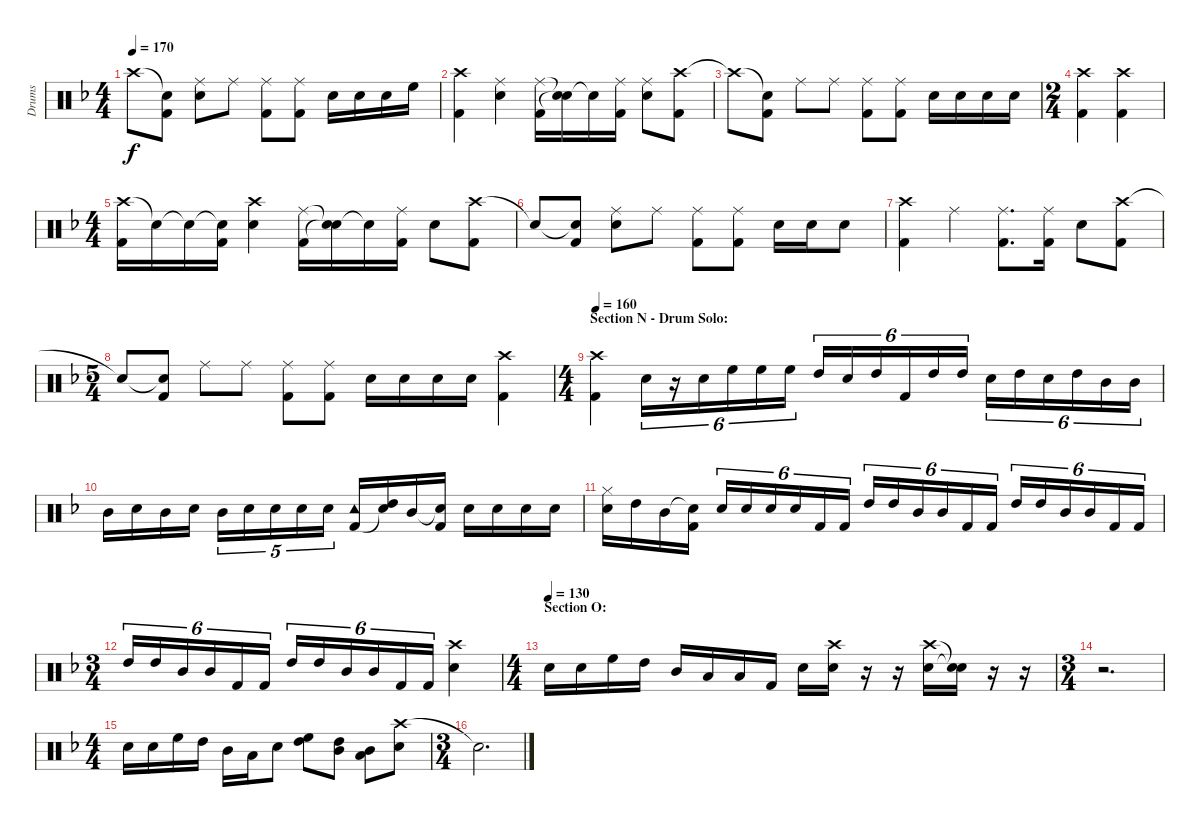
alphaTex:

\track ("Drums" "Drums") {instrument percussion}
\staff {score}
\articulation defaults
\ts (4 4)
\tempo 170
\clef neutral
\ks f "Crash high (hit)"{t}.8{dy f}
("Snare (hit)"{t} "Kick (hit) 2").8 ("Ride (middle)" "Snare (hit) 2").8 "Ride (middle)".8 ("Ride (middle)" "Kick (hit) 2").8 ("Ride (middle)" "Kick (hit) 2").8 "Snare (hit) 2".16 "Snare (hit) 2".16 "Snare (hit) 2".16 "High Floor Tom (hit)".16 |
("Crash high (hit)" "Kick (hit) 2").4 ("Ride (middle)" "Snare (hit) 2").4 ("Ride (middle)" "Kick (hit) 2").16 ("Snare (hit)"{t} "Snare (hit)"{t}).16 "Snare (hit)"{t}.16 ("Ride (middle)" "Kick (hit) 2").16 ("Ride (middle)" "Snare (hit) 2").8 ("Crash high (hit)" "Kick (hit) 2").8 |
"Crash high (hit)"{t}.8 ("Snare (hit)"{t} "Kick (hit) 2").8 "Ride (middle)".8 "Ride (middle)".8 ("Ride (middle)" "Kick (hit) 2").8 ("Ride (middle)" "Kick (hit) 2").8 "Snare (hit) 2".16 "Snare (hit) 2".16 "Snare (hit) 2".16 "Snare (hit) 2".16 |
\ts (2 4)
("Crash high (hit)" "Kick (hit) 2").4 ("Crash high (hit)" "Kick (hit) 2").4 |
\ts (4 4)
("Crash high (hit)" "Kick (hit) 2").16 "Snare (hit)"{t}.16 "Snare (hit)"{t}.16 ("Snare (hit)"{t} "Kick (hit) 2").16 ("Crash high (hit)" "Snare (hit) 2").4 ("Ride (middle)" "Kick (hit) 2").16 ("Snare (hit)"{t} "Snare (hit)"{t}).16 "Snare (hit)"{t}.16 ("Ride (middle)" "Kick (hit) 2").16 "Snare (hit) 2".8 ("Crash high (hit)" "Kick (hit) 2").8 |
"Snare (hit)"{t}.8 ("Snare (hit)"{t} "Kick (hit) 2").8 ("Ride (middle)" "Snare (hit) 2").8 "Ride (middle)".8 ("Ride (middle)" "Kick (hit) 2").8 ("Ride (middle)" "Kick (hit) 2").8 "Snare (hit) 2".16 "Snare (hit) 2".16 "Snare (hit) 2".8 |
("Crash high (hit)" "Kick (hit) 2").4 "Ride (middle)".4 ("Ride (middle)" "Kick (hit) 2").8{d} ("Ride (middle)" "Kick (hit) 2").16 "Snare (hit) 2".8 ("Crash high (hit)" "Kick (hit) 2").8 |
\ts (5 4)
"Snare (hit)"{t}.8 ("Snare (hit)"{t} "Kick (hit) 2").8 "Ride (middle)".8 "Ride (middle)".8 ("Ride (middle)" "Kick (hit) 2").8 ("Ride (middle)" "Kick (hit) 2").8 "Snare (hit) 2".16 "Snare (hit) 2".16 "Snare (hit) 2".16 "Snare (hit) 2".16 ("Crash high (hit)" "Kick (hit) 2").4 |
\ts (4 4)
\section ("" "Section N - Drum Solo:")
\tempo 160
("Crash high (hit)" "Kick (hit) 2").4 "Snare (hit) 2".16{tu (6 4)} r.16{tu (6 4)} "Snare (hit) 2".16{tu (6 4)} "High Floor Tom (hit)".16{tu (6 4)} "High Floor Tom (hit)".16{tu (6 4)} "High Floor Tom (hit)".16{tu (6 4)} "High Tom (hit)".16{tu (6 4)} "Snare (hit) 2".16{tu (6 4)} "High Tom (hit)".16{tu (6 4)} "Kick (hit) 2".16{tu (6 4)} "High Tom (hit)".16{tu (6 4)} "High Tom (hit)".16{tu (6 4)} "Snare (hit) 2".16{tu (6 4)} "High Tom (hit)".16{tu (6 4)} "Snare (hit) 2".16{tu (6 4)} "High Tom (hit)".16{tu (6 4)} "Mid Tom (hit)".16{tu (6 4)} "Mid Tom (hit)".16{tu (6 4)} |
"Mid Tom (hit)".16 "Snare (hit) 2".16 "Mid Tom (hit)".16 "Snare (hit) 2".16 "Mid Tom (hit)".16{tu (5 4)} "Snare (hit) 2".16{tu (5 4)} "Snare (hit) 2".16{tu (5 4)} "Snare (hit) 2".16{tu (5 4)} "Snare (hit) 2".16{tu (5 4)} ("Tambourine (hit)" "Kick (hit) 2").16 ("High Tom (hit)" "Snare (hit)"{t}).16 "Mid Tom (hit)".16 ("Snare (hit)"{t} "Kick (hit) 2").16 "Snare (hit) 2".16 "Snare (hit) 2".16 "Snare (hit) 2".16 "Snare (hit) 2".16 |
("Hi-Hat (closed)" "Snare (hit) 2").16 "High Tom (hit)".16 "Mid Tom (hit)".16 ("Snare (hit)"{t} "Kick (hit) 2").16 "Snare (hit) 2".16{tu (6 4)} "Snare (hit) 2".16{tu (6 4)} "Snare (hit) 2".16{tu (6 4)} "Snare (hit) 2".16{tu (6 4)} "Kick (hit) 2".16{tu (6 4)} "Kick (hit) 2".16{tu (6 4)} "High Tom (hit)".16{tu (6 4)} "High Tom (hit)".16{tu (6 4)} "Mid Tom (hit)".16{tu (6 4)} "Mid Tom (hit)".16{tu (6 4)} "Kick (hit) 2".16{tu (6 4)} "Kick (hit) 2".16{tu (6 4)} "High Tom (hit)".16{tu (6 4)} "High Tom (hit)".16{tu (6 4)} "Mid Tom (hit)".16{tu (6 4)} "Mid Tom (hit)".16{tu (6 4)} "Kick (hit) 2".16{tu (6 4)} "Kick (hit) 2".16{tu (6 4)} |
\ts (3 4)
"High Tom (hit)".16{tu (6 4)} "High Tom (hit)".16{tu (6 4)} "Mid Tom (hit)".16{tu (6 4)} "Mid Tom (hit)".16{tu (6 4)} "Kick (hit) 2".16{tu (6 4)} "Kick (hit) 2".16{tu (6 4)} "High Tom (hit)".16{tu (6 4)} "High Tom (hit)".16{tu (6 4)} "Mid Tom (hit)".16{tu (6 4)} "Mid Tom (hit)".16{tu (6 4)} "Kick (hit) 2".16{tu (6 4)} "Kick (hit) 2".16{tu (6 4)} ("Crash high (hit)" "Snare (hit) 2").4 |
\ts (4 4)
\section ("" "Section O:")
\tempo (130)
"Snare (hit) 2".16 "Snare (hit) 2".16 "High Floor Tom (hit)".16 "High Tom (hit)".16 "Mid Tom (hit)".16 "Low Tom (hit)".16 "Low Tom (hit)".16 "Kick (hit) 2".16 "Snare (hit) 2".16 ("Crash high (hit)" "Snare (hit) 2").16 r.16 r.16 ("Crash high (hit)" "Snare (hit) 2").16 ("Snare (hit)"{t} "Snare (hit) 2"{t}).16 r.16 r.16 |
\ts (3 4)
r.2{d} |
\ts (4 4)
"Snare (hit) 2".16 "Snare (hit) 2".16 "High Floor Tom (hit)".16 "High Tom (hit)".16 "Mid Tom (hit)".16 "Low Tom (hit)".16 "Snare (hit) 2".8 ("High Floor Tom (hit)" "High Tom (hit)").8 ("High Tom (hit)" "Mid Tom (hit)").8 ("Mid Tom (hit)" "Low Tom (hit)").8 ("Crash high (hit)" "Snare (hit) 2").8 |
\ts (3 4)
"Snare (hit)"{t}.2{d}
